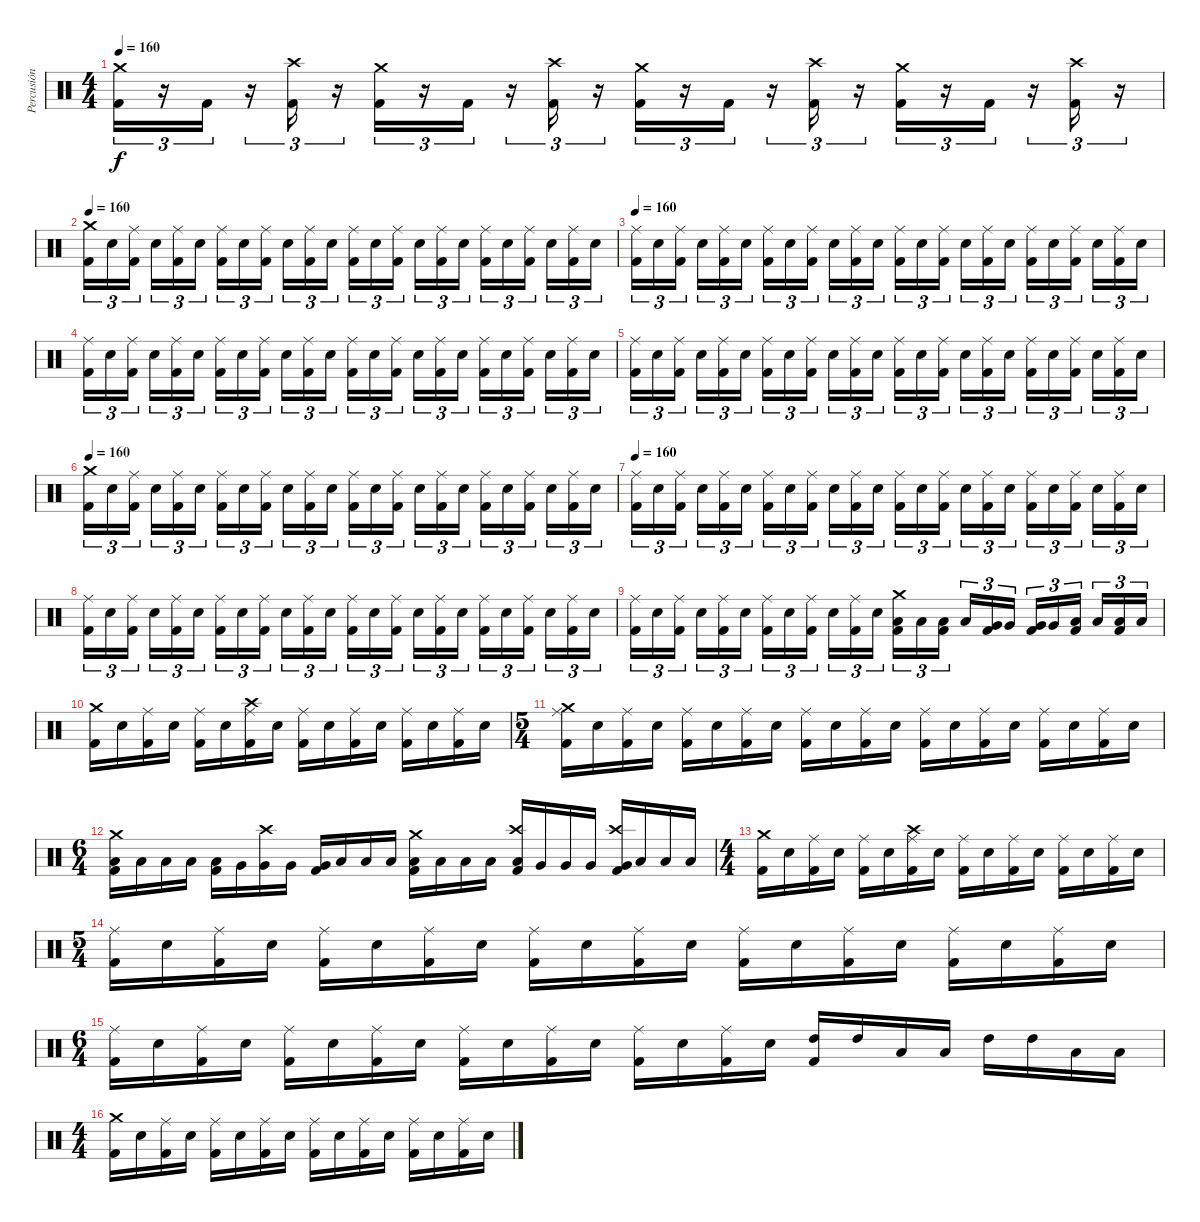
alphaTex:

\track ("Percusión" "Percusión") {instrument percussion}
\staff {score}
\articulation defaults
\ts (4 4)
\tempo 160
\clef neutral
\ks c
("Crash medium (hit)" "Kick (hit) 2").16{tu (3 2) dy f} r.16{tu (3 2)} "Kick (hit) 2".16{tu (3 2)} r.16{tu (3 2)} ("Crash high (hit)" "Kick (hit) 2").16{tu (3 2)} r.16{tu (3 2)} ("Crash medium (hit)" "Kick (hit) 2").16{tu (3 2)} r.16{tu (3 2)} "Kick (hit) 2".16{tu (3 2)} r.16{tu (3 2)} ("Crash high (hit)" "Kick (hit) 2").16{tu (3 2)} r.16{tu (3 2)} ("Crash medium (hit)" "Kick (hit) 2").16{tu (3 2)} r.16{tu (3 2)} "Kick (hit) 2".16{tu (3 2)} r.16{tu (3 2)} ("Crash high (hit)" "Kick (hit) 2").16{tu (3 2)} r.16{tu (3 2)} ("Crash medium (hit)" "Kick (hit) 2").16{tu (3 2)} r.16{tu (3 2)} "Kick (hit) 2".16{tu (3 2)} r.16{tu (3 2)} ("Crash high (hit)" "Kick (hit) 2").16{tu (3 2)} r.16{tu (3 2)} |
\tempo 160
("Crash medium (hit)" "Kick (hit) 2").16{tu (3 2)} "Electric Snare (hit)".16{tu (3 2)} ("Ride (middle)" "Kick (hit) 2").16{tu (3 2) beam splitsecondary} "Electric Snare (hit)".16{tu (3 2)} ("Ride (middle)" "Kick (hit) 2").16{tu (3 2)} "Electric Snare (hit)".16{tu (3 2)} ("Ride (middle)" "Kick (hit) 2").16{tu (3 2)} "Electric Snare (hit)".16{tu (3 2)} ("Ride (middle)" "Kick (hit) 2").16{tu (3 2) beam splitsecondary} "Electric Snare (hit)".16{tu (3 2)} ("Ride (middle)" "Kick (hit) 2").16{tu (3 2)} "Electric Snare (hit)".16{tu (3 2)} ("Ride (middle)" "Kick (hit) 2").16{tu (3 2)} "Electric Snare (hit)".16{tu (3 2)} ("Ride (middle)" "Kick (hit) 2").16{tu (3 2) beam splitsecondary} "Electric Snare (hit)".16{tu (3 2)} ("Ride (middle)" "Kick (hit) 2").16{tu (3 2)} "Electric Snare (hit)".16{tu (3 2)} ("Ride (middle)" "Kick (hit) 2").16{tu (3 2)} "Electric Snare (hit)".16{tu (3 2)} ("Ride (middle)" "Kick (hit) 2").16{tu (3 2) beam splitsecondary} "Electric Snare (hit)".16{tu (3 2)} ("Ride (middle)" "Kick (hit) 2").16{tu (3 2)} "Electric Snare (hit)".16{tu (3 2)} |
\tempo 160
("Ride (middle)" "Kick (hit) 2").16{tu (3 2)} "Electric Snare (hit)".16{tu (3 2)} ("Ride (middle)" "Kick (hit) 2").16{tu (3 2) beam splitsecondary} "Electric Snare (hit)".16{tu (3 2)} ("Ride (middle)" "Kick (hit) 2").16{tu (3 2)} "Electric Snare (hit)".16{tu (3 2)} ("Ride (middle)" "Kick (hit) 2").16{tu (3 2)} "Electric Snare (hit)".16{tu (3 2)} ("Ride (middle)" "Kick (hit) 2").16{tu (3 2) beam splitsecondary} "Electric Snare (hit)".16{tu (3 2)} ("Ride (middle)" "Kick (hit) 2").16{tu (3 2)} "Electric Snare (hit)".16{tu (3 2)} ("Ride (middle)" "Kick (hit) 2").16{tu (3 2)} "Electric Snare (hit)".16{tu (3 2)} ("Ride (middle)" "Kick (hit) 2").16{tu (3 2) beam splitsecondary} "Electric Snare (hit)".16{tu (3 2)} ("Ride (middle)" "Kick (hit) 2").16{tu (3 2)} "Electric Snare (hit)".16{tu (3 2)} ("Ride (middle)" "Kick (hit) 2").16{tu (3 2)} "Electric Snare (hit)".16{tu (3 2)} ("Ride (middle)" "Kick (hit) 2").16{tu (3 2) beam splitsecondary} "Electric Snare (hit)".16{tu (3 2)} ("Ride (middle)" "Kick (hit) 2").16{tu (3 2)} "Electric Snare (hit)".16{tu (3 2)} |
("Ride (middle)" "Kick (hit) 2").16{tu (3 2)} "Electric Snare (hit)".16{tu (3 2)} ("Ride (middle)" "Kick (hit) 2").16{tu (3 2) beam splitsecondary} "Electric Snare (hit)".16{tu (3 2)} ("Ride (middle)" "Kick (hit) 2").16{tu (3 2)} "Electric Snare (hit)".16{tu (3 2)} ("Ride (middle)" "Kick (hit) 2").16{tu (3 2)} "Electric Snare (hit)".16{tu (3 2)} ("Ride (middle)" "Kick (hit) 2").16{tu (3 2) beam splitsecondary} "Electric Snare (hit)".16{tu (3 2)} ("Ride (middle)" "Kick (hit) 2").16{tu (3 2)} "Electric Snare (hit)".16{tu (3 2)} ("Ride (middle)" "Kick (hit) 2").16{tu (3 2)} "Electric Snare (hit)".16{tu (3 2)} ("Ride (middle)" "Kick (hit) 2").16{tu (3 2) beam splitsecondary} "Electric Snare (hit)".16{tu (3 2)} ("Ride (middle)" "Kick (hit) 2").16{tu (3 2)} "Electric Snare (hit)".16{tu (3 2)} ("Ride (middle)" "Kick (hit) 2").16{tu (3 2)} "Electric Snare (hit)".16{tu (3 2)} ("Ride (middle)" "Kick (hit) 2").16{tu (3 2) beam splitsecondary} "Electric Snare (hit)".16{tu (3 2)} ("Ride (middle)" "Kick (hit) 2").16{tu (3 2)} "Electric Snare (hit)".16{tu (3 2)} |
("Ride (middle)" "Kick (hit) 2").16{tu (3 2)} "Electric Snare (hit)".16{tu (3 2)} ("Ride (middle)" "Kick (hit) 2").16{tu (3 2) beam splitsecondary} "Electric Snare (hit)".16{tu (3 2)} ("Ride (middle)" "Kick (hit) 2").16{tu (3 2)} "Electric Snare (hit)".16{tu (3 2)} ("Ride (middle)" "Kick (hit) 2").16{tu (3 2)} "Electric Snare (hit)".16{tu (3 2)} ("Ride (middle)" "Kick (hit) 2").16{tu (3 2) beam splitsecondary} "Electric Snare (hit)".16{tu (3 2)} ("Ride (middle)" "Kick (hit) 2").16{tu (3 2)} "Electric Snare (hit)".16{tu (3 2)} ("Ride (middle)" "Kick (hit) 2").16{tu (3 2)} "Electric Snare (hit)".16{tu (3 2)} ("Ride (middle)" "Kick (hit) 2").16{tu (3 2) beam splitsecondary} "Electric Snare (hit)".16{tu (3 2)} ("Ride (middle)" "Kick (hit) 2").16{tu (3 2)} "Electric Snare (hit)".16{tu (3 2)} ("Ride (middle)" "Kick (hit) 2").16{tu (3 2)} "Electric Snare (hit)".16{tu (3 2)} ("Ride (middle)" "Kick (hit) 2").16{tu (3 2) beam splitsecondary} "Electric Snare (hit)".16{tu (3 2)} ("Ride (middle)" "Kick (hit) 2").16{tu (3 2)} "Electric Snare (hit)".16{tu (3 2)} |
\tempo 160
("Crash medium (hit)" "Kick (hit) 2").16{tu (3 2)} "Electric Snare (hit)".16{tu (3 2)} ("Ride (middle)" "Kick (hit) 2").16{tu (3 2) beam splitsecondary} "Electric Snare (hit)".16{tu (3 2)} ("Ride (middle)" "Kick (hit) 2").16{tu (3 2)} "Electric Snare (hit)".16{tu (3 2)} ("Ride (middle)" "Kick (hit) 2").16{tu (3 2)} "Electric Snare (hit)".16{tu (3 2)} ("Ride (middle)" "Kick (hit) 2").16{tu (3 2) beam splitsecondary} "Electric Snare (hit)".16{tu (3 2)} ("Ride (middle)" "Kick (hit) 2").16{tu (3 2)} "Electric Snare (hit)".16{tu (3 2)} ("Ride (middle)" "Kick (hit) 2").16{tu (3 2)} "Electric Snare (hit)".16{tu (3 2)} ("Ride (middle)" "Kick (hit) 2").16{tu (3 2) beam splitsecondary} "Electric Snare (hit)".16{tu (3 2)} ("Ride (middle)" "Kick (hit) 2").16{tu (3 2)} "Electric Snare (hit)".16{tu (3 2)} ("Ride (middle)" "Kick (hit) 2").16{tu (3 2)} "Electric Snare (hit)".16{tu (3 2)} ("Ride (middle)" "Kick (hit) 2").16{tu (3 2) beam splitsecondary} "Electric Snare (hit)".16{tu (3 2)} ("Ride (middle)" "Kick (hit) 2").16{tu (3 2)} "Electric Snare (hit)".16{tu (3 2)} |
\tempo 160
("Ride (middle)" "Kick (hit) 2").16{tu (3 2)} "Electric Snare (hit)".16{tu (3 2)} ("Ride (middle)" "Kick (hit) 2").16{tu (3 2) beam splitsecondary} "Electric Snare (hit)".16{tu (3 2)} ("Ride (middle)" "Kick (hit) 2").16{tu (3 2)} "Electric Snare (hit)".16{tu (3 2)} ("Ride (middle)" "Kick (hit) 2").16{tu (3 2)} "Electric Snare (hit)".16{tu (3 2)} ("Ride (middle)" "Kick (hit) 2").16{tu (3 2) beam splitsecondary} "Electric Snare (hit)".16{tu (3 2)} ("Ride (middle)" "Kick (hit) 2").16{tu (3 2)} "Electric Snare (hit)".16{tu (3 2)} ("Ride (middle)" "Kick (hit) 2").16{tu (3 2)} "Electric Snare (hit)".16{tu (3 2)} ("Ride (middle)" "Kick (hit) 2").16{tu (3 2) beam splitsecondary} "Electric Snare (hit)".16{tu (3 2)} ("Ride (middle)" "Kick (hit) 2").16{tu (3 2)} "Electric Snare (hit)".16{tu (3 2)} ("Ride (middle)" "Kick (hit) 2").16{tu (3 2)} "Electric Snare (hit)".16{tu (3 2)} ("Ride (middle)" "Kick (hit) 2").16{tu (3 2) beam splitsecondary} "Electric Snare (hit)".16{tu (3 2)} ("Ride (middle)" "Kick (hit) 2").16{tu (3 2)} "Electric Snare (hit)".16{tu (3 2)} |
("Ride (middle)" "Kick (hit) 2").16{tu (3 2)} "Electric Snare (hit)".16{tu (3 2)} ("Ride (middle)" "Kick (hit) 2").16{tu (3 2) beam splitsecondary} "Electric Snare (hit)".16{tu (3 2)} ("Ride (middle)" "Kick (hit) 2").16{tu (3 2)} "Electric Snare (hit)".16{tu (3 2)} ("Ride (middle)" "Kick (hit) 2").16{tu (3 2)} "Electric Snare (hit)".16{tu (3 2)} ("Ride (middle)" "Kick (hit) 2").16{tu (3 2) beam splitsecondary} "Electric Snare (hit)".16{tu (3 2)} ("Ride (middle)" "Kick (hit) 2").16{tu (3 2)} "Electric Snare (hit)".16{tu (3 2)} ("Ride (middle)" "Kick (hit) 2").16{tu (3 2)} "Electric Snare (hit)".16{tu (3 2)} ("Ride (middle)" "Kick (hit) 2").16{tu (3 2) beam splitsecondary} "Electric Snare (hit)".16{tu (3 2)} ("Ride (middle)" "Kick (hit) 2").16{tu (3 2)} "Electric Snare (hit)".16{tu (3 2)} ("Ride (middle)" "Kick (hit) 2").16{tu (3 2)} "Electric Snare (hit)".16{tu (3 2)} ("Ride (middle)" "Kick (hit) 2").16{tu (3 2) beam splitsecondary} "Electric Snare (hit)".16{tu (3 2)} ("Ride (middle)" "Kick (hit) 2").16{tu (3 2)} "Electric Snare (hit)".16{tu (3 2)} |
("Ride (middle)" "Kick (hit) 2").16{tu (3 2)} "Electric Snare (hit)".16{tu (3 2)} ("Ride (middle)" "Kick (hit) 2").16{tu (3 2) beam splitsecondary} "Electric Snare (hit)".16{tu (3 2)} ("Ride (middle)" "Kick (hit) 2").16{tu (3 2)} "Electric Snare (hit)".16{tu (3 2)} ("Ride (middle)" "Kick (hit) 2").16{tu (3 2)} "Electric Snare (hit)".16{tu (3 2)} ("Ride (middle)" "Kick (hit) 2").16{tu (3 2) beam splitsecondary} "Electric Snare (hit)".16{tu (3 2)} ("Ride (middle)" "Kick (hit) 2").16{tu (3 2)} "Electric Snare (hit)".16{tu (3 2)} ("Crash medium (hit)" "Low Tom (hit)" "Kick (hit) 2").16{tu (3 2)} "Low Tom (hit)".16{tu (3 2)} ("Low Tom (hit)" "Kick (hit) 2").16{tu (3 2) beam splitsecondary} "Low Tom (hit)".16{tu (3 2)} ("Very Low Tom (hit)" "Kick (hit) 2").16{tu (3 2)} "Very Low Tom (hit)".16{tu (3 2)} ("Very Low Tom (hit)" "Kick (hit) 2").16{tu (3 2)} "Very Low Tom (hit)".16{tu (3 2)} ("Low Floor Tom (hit)" "Kick (hit) 2").16{tu (3 2) beam splitsecondary} "Low Floor Tom (hit)".16{tu (3 2)} ("Low Floor Tom (hit)" "Kick (hit) 2").16{tu (3 2)} "Low Floor Tom (hit)".16{tu (3 2)} |
("Crash medium (hit)" "Kick (hit) 2").16 "Electric Snare (hit)".16 ("Ride (middle)" "Kick (hit) 2").16 "Electric Snare (hit)".16 ("Ride (middle)" "Kick (hit) 2").16 "Electric Snare (hit)".16 ("Crash high (hit)" "Ride (middle)" "Kick (hit) 2").16 "Electric Snare (hit)".16 ("Ride (middle)" "Kick (hit) 2").16 "Electric Snare (hit)".16 ("Ride (middle)" "Kick (hit) 2").16 "Electric Snare (hit)".16 ("Ride (middle)" "Kick (hit) 2").16 "Electric Snare (hit)".16 ("Ride (middle)" "Kick (hit) 2").16 "Electric Snare (hit)".16 |
\ts (5 4)
("Crash medium (hit)" "Ride (middle)" "Kick (hit) 2").16 "Electric Snare (hit)".16 ("Ride (middle)" "Kick (hit) 2").16 "Electric Snare (hit)".16 ("Ride (middle)" "Kick (hit) 2").16 "Electric Snare (hit)".16 ("Ride (middle)" "Kick (hit) 2").16 "Electric Snare (hit)".16 ("Ride (middle)" "Kick (hit) 2").16 "Electric Snare (hit)".16 ("Ride (middle)" "Kick (hit) 2").16 "Electric Snare (hit)".16 ("Ride (middle)" "Kick (hit) 2").16 "Electric Snare (hit)".16 ("Ride (middle)" "Kick (hit) 2").16 "Electric Snare (hit)".16 ("Ride (middle)" "Kick (hit) 2").16 "Electric Snare (hit)".16 ("Ride (middle)" "Kick (hit) 2").16 "Electric Snare (hit)".16 |
\ts (6 4)
("Crash medium (hit)" "Low Tom (hit)" "Kick (hit) 2").16 "Low Tom (hit)".16 "Low Tom (hit)".16 "Low Tom (hit)".16 ("Low Tom (hit)" "Kick (hit) 2").16 "Very Low Tom (hit)".16 ("Crash high (hit)" "Very Low Tom (hit)").16 "Very Low Tom (hit)".16 ("Very Low Tom (hit)" "Kick (hit) 2").16 "Low Floor Tom (hit)".16 "Low Floor Tom (hit)".16 "Low Floor Tom (hit)".16 ("Crash medium (hit)" "Low Tom (hit)" "Kick (hit) 2").16 "Low Tom (hit)".16 "Low Tom (hit)".16 "Low Tom (hit)".16 ("Crash high (hit)" "Low Tom (hit)" "Kick (hit) 2").16 "Very Low Tom (hit)".16 "Very Low Tom (hit)".16 "Very Low Tom (hit)".16 ("Crash high (hit)" "Very Low Tom (hit)" "Kick (hit) 2").16 "Low Floor Tom (hit)".16 "Low Floor Tom (hit)".16 "Low Floor Tom (hit)".16 |
\ts (4 4)
("Crash medium (hit)" "Kick (hit) 2").16 "Electric Snare (hit)".16 ("Ride (middle)" "Kick (hit) 2").16 "Electric Snare (hit)".16 ("Ride (middle)" "Kick (hit) 2").16 "Electric Snare (hit)".16 ("Crash high (hit)" "Ride (middle)" "Kick (hit) 2").16 "Electric Snare (hit)".16 ("Ride (middle)" "Kick (hit) 2").16 "Electric Snare (hit)".16 ("Ride (middle)" "Kick (hit) 2").16 "Electric Snare (hit)".16 ("Ride (middle)" "Kick (hit) 2").16 "Electric Snare (hit)".16 ("Ride (middle)" "Kick (hit) 2").16 "Electric Snare (hit)".16 |
\ts (5 4)
("Ride (middle)" "Kick (hit) 2").16 "Electric Snare (hit)".16 ("Ride (middle)" "Kick (hit) 2").16 "Electric Snare (hit)".16 ("Ride (middle)" "Kick (hit) 2").16 "Electric Snare (hit)".16 ("Ride (middle)" "Kick (hit) 2").16 "Electric Snare (hit)".16 ("Ride (middle)" "Kick (hit) 2").16 "Electric Snare (hit)".16 ("Ride (middle)" "Kick (hit) 2").16 "Electric Snare (hit)".16 ("Ride (middle)" "Kick (hit) 2").16 "Electric Snare (hit)".16 ("Ride (middle)" "Kick (hit) 2").16 "Electric Snare (hit)".16 ("Ride (middle)" "Kick (hit) 2").16 "Electric Snare (hit)".16 ("Ride (middle)" "Kick (hit) 2").16 "Electric Snare (hit)".16 |
\ts (6 4)
("Ride (middle)" "Kick (hit) 2").16 "Electric Snare (hit)".16 ("Ride (middle)" "Kick (hit) 2").16 "Electric Snare (hit)".16 ("Ride (middle)" "Kick (hit) 2").16 "Electric Snare (hit)".16 ("Ride (middle)" "Kick (hit) 2").16 "Electric Snare (hit)".16 ("Ride (middle)" "Kick (hit) 2").16 "Electric Snare (hit)".16 ("Ride (middle)" "Kick (hit) 2").16 "Electric Snare (hit)".16 ("Ride (middle)" "Kick (hit) 2").16 "Electric Snare (hit)".16 ("Ride (middle)" "Kick (hit) 2").16 "Electric Snare (hit)".16 ("High Tom (hit)" "Kick (hit) 2").16 "High Tom (hit)".16 "Low Tom (hit)".16 "Low Tom (hit)".16 "High Tom (hit)".16 "High Tom (hit)".16 "Low Floor Tom (hit)".16 "Low Floor Tom (hit)".16 |
\ts (4 4)
("Crash medium (hit)" "Kick (hit) 2").16 "Electric Snare (hit)".16 ("Ride (middle)" "Kick (hit) 2").16 "Electric Snare (hit)".16 ("Ride (middle)" "Kick (hit) 2").16 "Electric Snare (hit)".16 ("Ride (middle)" "Kick (hit) 2").16 "Electric Snare (hit)".16 ("Ride (middle)" "Kick (hit) 2").16 "Electric Snare (hit)".16 ("Ride (middle)" "Kick (hit) 2").16 "Electric Snare (hit)".16 ("Ride (middle)" "Kick (hit) 2").16 "Electric Snare (hit)".16 ("Ride (middle)" "Kick (hit) 2").16 "Electric Snare (hit)".16
